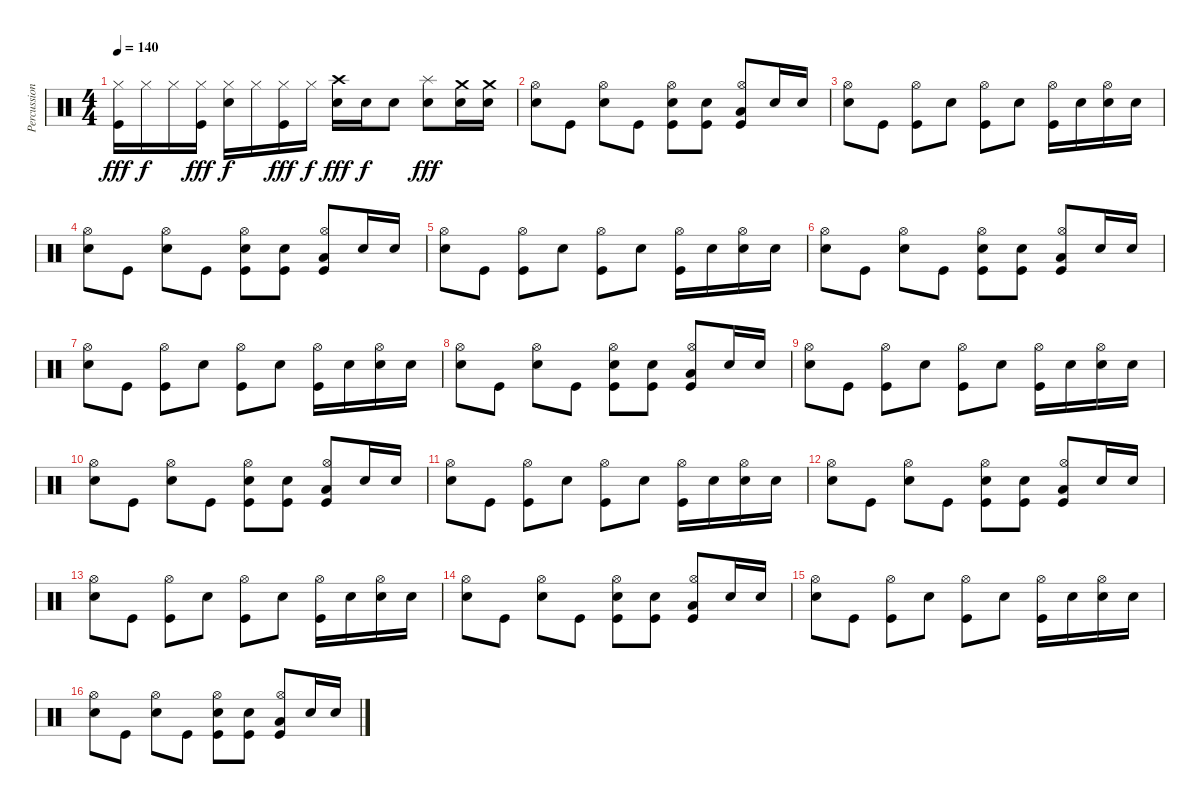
\track ("Percussion" "Percussion") {instrument percussion}
\staff {score}
\articulation defaults
\ts (4 4)
\tempo 140
\clef neutral
\ks c
("Hi-Hat (closed)" "Kick (hit)").16{dy fff} "Hi-Hat (closed)".16{dy f} "Hi-Hat (closed)".16 ("Hi-Hat (closed)" "Kick (hit)").16{dy fff} ("Hi-Hat (closed)" "Snare (hit) 2").16{dy f} "Hi-Hat (closed)".16 ("Hi-Hat (closed)" "Kick (hit)").16{dy fff} "Hi-Hat (closed)".16{dy f} ("Crash high (hit)" "Snare (hit) 2").16{dy fff} "Snare (hit) 2".16{dy f} "Snare (hit) 2".8 ("Splash (hit)" "Snare (hit) 2").8{dy fff} ("Crash medium (hit)" "Snare (hit) 2").16 ("Crash medium (hit)" "Snare (hit) 2").16 |
("Hi-Hat (open)" "Snare (hit) 2").8 "Kick (hit)".8 ("Hi-Hat (open)" "Snare (hit) 2").8 "Kick (hit)".8 ("Hi-Hat (open)" "Kick (hit)" "Snare (hit) 2").8 ("Kick (hit)" "Snare (hit) 2").8 ("Low Tom (hit)" "Kick (hit)" "Hi-Hat (open)").8 "Snare (hit) 2".16 "Snare (hit) 2".16 |
("Snare (hit) 2" "Hi-Hat (open)").8 "Kick (hit)".8 ("Kick (hit)" "Hi-Hat (open)").8 "Snare (hit) 2".8 ("Kick (hit)" "Hi-Hat (open)").8 "Snare (hit) 2".8 ("Kick (hit)" "Hi-Hat (open)").16 "Snare (hit) 2".16 ("Snare (hit) 2" "Hi-Hat (open)").16 "Snare (hit) 2".16 |
("Hi-Hat (open)" "Snare (hit) 2").8 "Kick (hit)".8 ("Hi-Hat (open)" "Snare (hit) 2").8 "Kick (hit)".8 ("Hi-Hat (open)" "Kick (hit)" "Snare (hit) 2").8 ("Kick (hit)" "Snare (hit) 2").8 ("Low Tom (hit)" "Kick (hit)" "Hi-Hat (open)").8 "Snare (hit) 2".16 "Snare (hit) 2".16 |
("Snare (hit) 2" "Hi-Hat (open)").8 "Kick (hit)".8 ("Kick (hit)" "Hi-Hat (open)").8 "Snare (hit) 2".8 ("Kick (hit)" "Hi-Hat (open)").8 "Snare (hit) 2".8 ("Kick (hit)" "Hi-Hat (open)").16 "Snare (hit) 2".16 ("Snare (hit) 2" "Hi-Hat (open)").16 "Snare (hit) 2".16 |
("Hi-Hat (open)" "Snare (hit) 2").8 "Kick (hit)".8 ("Hi-Hat (open)" "Snare (hit) 2").8 "Kick (hit)".8 ("Hi-Hat (open)" "Kick (hit)" "Snare (hit) 2").8 ("Kick (hit)" "Snare (hit) 2").8 ("Low Tom (hit)" "Kick (hit)" "Hi-Hat (open)").8 "Snare (hit) 2".16 "Snare (hit) 2".16 |
("Snare (hit) 2" "Hi-Hat (open)").8 "Kick (hit)".8 ("Kick (hit)" "Hi-Hat (open)").8 "Snare (hit) 2".8 ("Kick (hit)" "Hi-Hat (open)").8 "Snare (hit) 2".8 ("Kick (hit)" "Hi-Hat (open)").16 "Snare (hit) 2".16 ("Snare (hit) 2" "Hi-Hat (open)").16 "Snare (hit) 2".16 |
("Hi-Hat (open)" "Snare (hit) 2").8 "Kick (hit)".8 ("Hi-Hat (open)" "Snare (hit) 2").8 "Kick (hit)".8 ("Hi-Hat (open)" "Kick (hit)" "Snare (hit) 2").8 ("Kick (hit)" "Snare (hit) 2").8 ("Low Tom (hit)" "Kick (hit)" "Hi-Hat (open)").8 "Snare (hit) 2".16 "Snare (hit) 2".16 |
("Snare (hit) 2" "Hi-Hat (open)").8 "Kick (hit)".8 ("Kick (hit)" "Hi-Hat (open)").8 "Snare (hit) 2".8 ("Kick (hit)" "Hi-Hat (open)").8 "Snare (hit) 2".8 ("Kick (hit)" "Hi-Hat (open)").16 "Snare (hit) 2".16 ("Snare (hit) 2" "Hi-Hat (open)").16 "Snare (hit) 2".16 |
("Hi-Hat (open)" "Snare (hit) 2").8 "Kick (hit)".8 ("Hi-Hat (open)" "Snare (hit) 2").8 "Kick (hit)".8 ("Hi-Hat (open)" "Kick (hit)" "Snare (hit) 2").8 ("Kick (hit)" "Snare (hit) 2").8 ("Low Tom (hit)" "Kick (hit)" "Hi-Hat (open)").8 "Snare (hit) 2".16 "Snare (hit) 2".16 |
("Snare (hit) 2" "Hi-Hat (open)").8 "Kick (hit)".8 ("Kick (hit)" "Hi-Hat (open)").8 "Snare (hit) 2".8 ("Kick (hit)" "Hi-Hat (open)").8 "Snare (hit) 2".8 ("Kick (hit)" "Hi-Hat (open)").16 "Snare (hit) 2".16 ("Snare (hit) 2" "Hi-Hat (open)").16 "Snare (hit) 2".16 |
("Hi-Hat (open)" "Snare (hit) 2").8 "Kick (hit)".8 ("Hi-Hat (open)" "Snare (hit) 2").8 "Kick (hit)".8 ("Hi-Hat (open)" "Kick (hit)" "Snare (hit) 2").8 ("Kick (hit)" "Snare (hit) 2").8 ("Low Tom (hit)" "Kick (hit)" "Hi-Hat (open)").8 "Snare (hit) 2".16 "Snare (hit) 2".16 |
("Snare (hit) 2" "Hi-Hat (open)").8 "Kick (hit)".8 ("Kick (hit)" "Hi-Hat (open)").8 "Snare (hit) 2".8 ("Kick (hit)" "Hi-Hat (open)").8 "Snare (hit) 2".8 ("Kick (hit)" "Hi-Hat (open)").16 "Snare (hit) 2".16 ("Snare (hit) 2" "Hi-Hat (open)").16 "Snare (hit) 2".16 |
("Hi-Hat (open)" "Snare (hit) 2").8 "Kick (hit)".8 ("Hi-Hat (open)" "Snare (hit) 2").8 "Kick (hit)".8 ("Hi-Hat (open)" "Kick (hit)" "Snare (hit) 2").8 ("Kick (hit)" "Snare (hit) 2").8 ("Low Tom (hit)" "Kick (hit)" "Hi-Hat (open)").8 "Snare (hit) 2".16 "Snare (hit) 2".16 |
("Snare (hit) 2" "Hi-Hat (open)").8 "Kick (hit)".8 ("Kick (hit)" "Hi-Hat (open)").8 "Snare (hit) 2".8 ("Kick (hit)" "Hi-Hat (open)").8 "Snare (hit) 2".8 ("Kick (hit)" "Hi-Hat (open)").16 "Snare (hit) 2".16 ("Snare (hit) 2" "Hi-Hat (open)").16 "Snare (hit) 2".16 |
("Hi-Hat (open)" "Snare (hit) 2").8 "Kick (hit)".8 ("Hi-Hat (open)" "Snare (hit) 2").8 "Kick (hit)".8 ("Hi-Hat (open)" "Kick (hit)" "Snare (hit) 2").8 ("Kick (hit)" "Snare (hit) 2").8 ("Low Tom (hit)" "Kick (hit)" "Hi-Hat (open)").8 "Snare (hit) 2".16 "Snare (hit) 2".16
